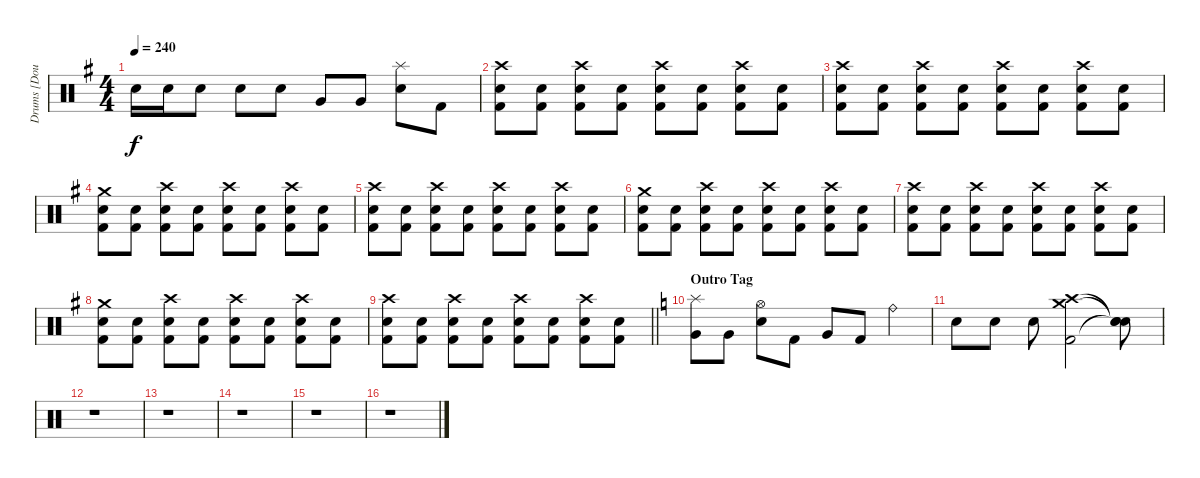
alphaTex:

\track ("Drums [Doug Anderson]" "Drums [Dou") {instrument percussion}
\staff {score}
\articulation defaults
\ts (4 4)
\tempo 240
\clef neutral
\ks eminor "Electric Snare (hit)".16{dy f} "Electric Snare (hit)".16 "Electric Snare (hit)".8 "Electric Snare (hit)".8 "Electric Snare (hit)".8 "Very Low Tom (hit)".8 "Very Low Tom (hit)".8
("Splash (hit)" "Electric Snare (hit)").8 "Kick (hit) 2".8 |
("Crash high (hit)" "Electric Snare (hit)" "Kick (hit) 2").8 ("Electric Snare (hit)" "Kick (hit) 2").8 ("Crash high (hit)" "Electric Snare (hit)" "Kick (hit) 2").8 ("Electric Snare (hit)" "Kick (hit) 2").8 ("Crash high (hit)" "Electric Snare (hit)" "Kick (hit) 2").8 ("Electric Snare (hit)" "Kick (hit) 2").8 ("Crash high (hit)" "Electric Snare (hit)" "Kick (hit) 2").8 ("Electric Snare (hit)" "Kick (hit) 2").8 |
("Crash high (hit)" "Electric Snare (hit)" "Kick (hit) 2").8 ("Electric Snare (hit)" "Kick (hit) 2").8 ("Crash high (hit)" "Electric Snare (hit)" "Kick (hit) 2").8 ("Electric Snare (hit)" "Kick (hit) 2").8 ("Crash high (hit)" "Electric Snare (hit)" "Kick (hit) 2").8 ("Electric Snare (hit)" "Kick (hit) 2").8 ("Crash high (hit)" "Electric Snare (hit)" "Kick (hit) 2").8 ("Electric Snare (hit)" "Kick (hit) 2").8 |
("Crash medium (hit)" "Electric Snare (hit)" "Kick (hit) 2").8 ("Electric Snare (hit)" "Kick (hit) 2").8 ("Crash high (hit)" "Electric Snare (hit)" "Kick (hit) 2").8 ("Electric Snare (hit)" "Kick (hit) 2").8 ("Crash high (hit)" "Electric Snare (hit)" "Kick (hit) 2").8 ("Electric Snare (hit)" "Kick (hit) 2").8 ("Crash high (hit)" "Electric Snare (hit)" "Kick (hit) 2").8 ("Electric Snare (hit)" "Kick (hit) 2").8 |
("Crash high (hit)" "Electric Snare (hit)" "Kick (hit) 2").8 ("Electric Snare (hit)" "Kick (hit) 2").8 ("Crash high (hit)" "Electric Snare (hit)" "Kick (hit) 2").8 ("Electric Snare (hit)" "Kick (hit) 2").8 ("Crash high (hit)" "Electric Snare (hit)" "Kick (hit) 2").8 ("Electric Snare (hit)" "Kick (hit) 2").8 ("Crash high (hit)" "Electric Snare (hit)" "Kick (hit) 2").8 ("Electric Snare (hit)" "Kick (hit) 2").8 |
("Crash medium (hit)" "Electric Snare (hit)" "Kick (hit) 2").8 ("Electric Snare (hit)" "Kick (hit) 2").8 ("Crash high (hit)" "Electric Snare (hit)" "Kick (hit) 2").8 ("Electric Snare (hit)" "Kick (hit) 2").8 ("Crash high (hit)" "Electric Snare (hit)" "Kick (hit) 2").8 ("Electric Snare (hit)" "Kick (hit) 2").8 ("Crash high (hit)" "Electric Snare (hit)" "Kick (hit) 2").8 ("Electric Snare (hit)" "Kick (hit) 2").8 |
("Crash high (hit)" "Electric Snare (hit)" "Kick (hit) 2").8 ("Electric Snare (hit)" "Kick (hit) 2").8 ("Crash high (hit)" "Electric Snare (hit)" "Kick (hit) 2").8 ("Electric Snare (hit)" "Kick (hit) 2").8 ("Crash high (hit)" "Electric Snare (hit)" "Kick (hit) 2").8 ("Electric Snare (hit)" "Kick (hit) 2").8 ("Crash high (hit)" "Electric Snare (hit)" "Kick (hit) 2").8 ("Electric Snare (hit)" "Kick (hit) 2").8 |
("Crash medium (hit)" "Electric Snare (hit)" "Kick (hit) 2").8 ("Electric Snare (hit)" "Kick (hit) 2").8 ("Crash high (hit)" "Electric Snare (hit)" "Kick (hit) 2").8 ("Electric Snare (hit)" "Kick (hit) 2").8 ("Crash high (hit)" "Electric Snare (hit)" "Kick (hit) 2").8 ("Electric Snare (hit)" "Kick (hit) 2").8 ("Crash high (hit)" "Electric Snare (hit)" "Kick (hit) 2").8 ("Electric Snare (hit)" "Kick (hit) 2").8 |
\barLineRight lightlight
("Crash high (hit)" "Electric Snare (hit)" "Kick (hit) 2").8 ("Electric Snare (hit)" "Kick (hit) 2").8 ("Crash high (hit)" "Electric Snare (hit)" "Kick (hit) 2").8 ("Electric Snare (hit)" "Kick (hit) 2").8 ("Crash high (hit)" "Electric Snare (hit)" "Kick (hit) 2").8 ("Electric Snare (hit)" "Kick (hit) 2").8 ("Crash high (hit)" "Electric Snare (hit)" "Kick (hit) 2").8 ("Electric Snare (hit)" "Kick (hit) 2").8 |
\section ("" "Outro Tag")
\ks aminor
("Splash (hit)" "Very Low Tom (hit)").8 "Very Low Tom (hit)".8 ("Hi-Hat (open)" "Electric Snare (hit)").8 "Kick (hit) 2".8 "Very Low Tom (hit)".8 "Kick (hit) 2".8 "Ride (bell)".4 |
"Electric Snare (hit)".8 "Electric Snare (hit)".8 "Electric Snare (hit)".8 ("Crash high (hit)" "Crash medium (hit)" "Kick (hit) 2").2 ("Snare (hit)"{t} "Snare (hit)"{t} "Snare (hit)"{t}).8 |
r.1 |
r.1 |
r.1 |
r.1 |
r.1
